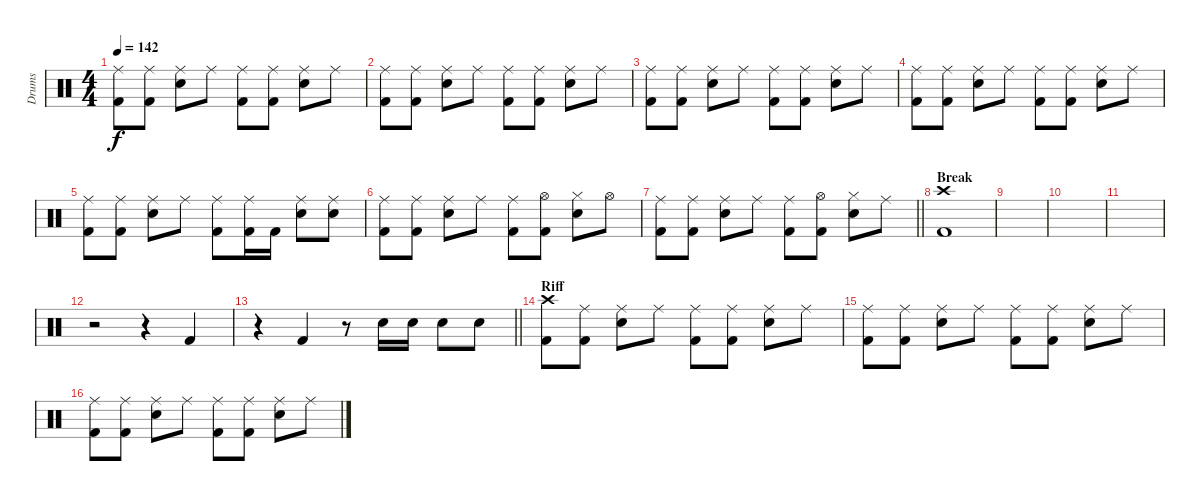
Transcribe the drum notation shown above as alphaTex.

\track ("Drums" "Drums") {instrument percussion}
\staff {score}
\articulation defaults
\ts (4 4)
\tempo 142
\clef neutral
\ks c
("Ride (middle)" "Kick (hit) 2").8{dy f} ("Ride (middle)" "Kick (hit) 2").8 ("Ride (middle)" "Electric Snare (hit)").8 "Ride (middle)".8 ("Ride (middle)" "Kick (hit) 2").8 ("Ride (middle)" "Kick (hit) 2").8 ("Ride (middle)" "Electric Snare (hit)").8 "Ride (middle)".8 |
("Ride (middle)" "Kick (hit) 2").8 ("Ride (middle)" "Kick (hit) 2").8 ("Ride (middle)" "Electric Snare (hit)").8 "Ride (middle)".8 ("Ride (middle)" "Kick (hit) 2").8 ("Ride (middle)" "Kick (hit) 2").8 ("Ride (middle)" "Electric Snare (hit)").8 "Ride (middle)".8 |
("Ride (middle)" "Kick (hit) 2").8 ("Ride (middle)" "Kick (hit) 2").8 ("Ride (middle)" "Electric Snare (hit)").8 "Ride (middle)".8 ("Ride (middle)" "Kick (hit) 2").8 ("Ride (middle)" "Kick (hit) 2").8 ("Ride (middle)" "Electric Snare (hit)").8 "Ride (middle)".8 |
("Ride (middle)" "Kick (hit) 2").8 ("Ride (middle)" "Kick (hit) 2").8 ("Ride (middle)" "Electric Snare (hit)").8 "Ride (middle)".8 ("Ride (middle)" "Kick (hit) 2").8 ("Ride (middle)" "Kick (hit) 2").8 ("Ride (middle)" "Electric Snare (hit)").8 "Ride (middle)".8 |
("Ride (middle)" "Kick (hit) 2").8 ("Ride (middle)" "Kick (hit) 2").8 ("Ride (middle)" "Electric Snare (hit)").8 "Ride (middle)".8 ("Ride (middle)" "Kick (hit) 2").8 ("Ride (middle)" "Kick (hit) 2").16 "Kick (hit) 2".16 ("Ride (middle)" "Electric Snare (hit)").8 ("Ride (middle)" "Electric Snare (hit)").8 |
("Ride (middle)" "Kick (hit) 2").8 ("Ride (middle)" "Kick (hit) 2").8 ("Ride (middle)" "Electric Snare (hit)").8 "Ride (middle)".8 ("Ride (middle)" "Kick (hit) 2").8 ("Hi-Hat (open)" "Kick (hit) 2").8 ("Hi-Hat (closed)" "Electric Snare (hit)").8 "Hi-Hat (open)".8 |
\barLineRight lightlight
("Ride (middle)" "Kick (hit) 2").8 ("Ride (middle)" "Kick (hit) 2").8 ("Ride (middle)" "Electric Snare (hit)").8 "Ride (middle)".8 ("Ride (middle)" "Kick (hit) 2").8 ("Hi-Hat (open)" "Kick (hit) 2").8 ("Hi-Hat (closed)" "Electric Snare (hit)").8 "Ride (middle)".8 |
\section ("" "Break")
("Crash high (hit)" "Kick (hit) 2").1 |
|
|
|
r.2 r.4 "Kick (hit) 2".4 |
\barLineRight lightlight
r.4 "Kick (hit) 2".4 r.8 "Electric Snare (hit)".16 "Electric Snare (hit)".16 "Electric Snare (hit)".8 "Electric Snare (hit)".8 |
\section ("" "Riff")
("Crash high (hit)" "Kick (hit) 2").8 ("Ride (middle)" "Kick (hit) 2").8 ("Ride (middle)" "Electric Snare (hit)").8 "Ride (middle)".8 ("Ride (middle)" "Kick (hit) 2").8 ("Ride (middle)" "Kick (hit) 2").8 ("Ride (middle)" "Electric Snare (hit)").8 "Ride (middle)".8 |
("Ride (middle)" "Kick (hit) 2").8 ("Ride (middle)" "Kick (hit) 2").8 ("Ride (middle)" "Electric Snare (hit)").8 "Ride (middle)".8 ("Ride (middle)" "Kick (hit) 2").8 ("Ride (middle)" "Kick (hit) 2").8 ("Ride (middle)" "Electric Snare (hit)").8 "Ride (middle)".8 |
("Ride (middle)" "Kick (hit) 2").8 ("Ride (middle)" "Kick (hit) 2").8 ("Ride (middle)" "Electric Snare (hit)").8 "Ride (middle)".8 ("Ride (middle)" "Kick (hit) 2").8 ("Ride (middle)" "Kick (hit) 2").8 ("Ride (middle)" "Electric Snare (hit)").8 "Ride (middle)".8
